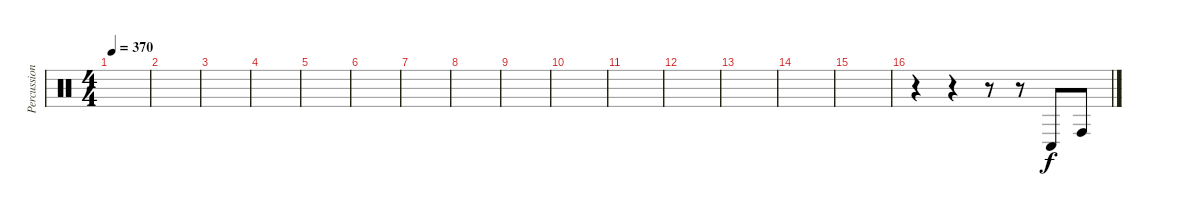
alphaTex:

\track ("Percussions" "Percussion") {instrument percussion}
\staff {score}
\articulation defaults
\ts (4 4)
\tempo 370
\clef neutral
\ks c
|
|
|
|
|
|
|
|
|
|
|
|
|
|
|
r.4 r.4 r.8 r.8 "Conga low (hit)".8 "Conga high (hit)".8
